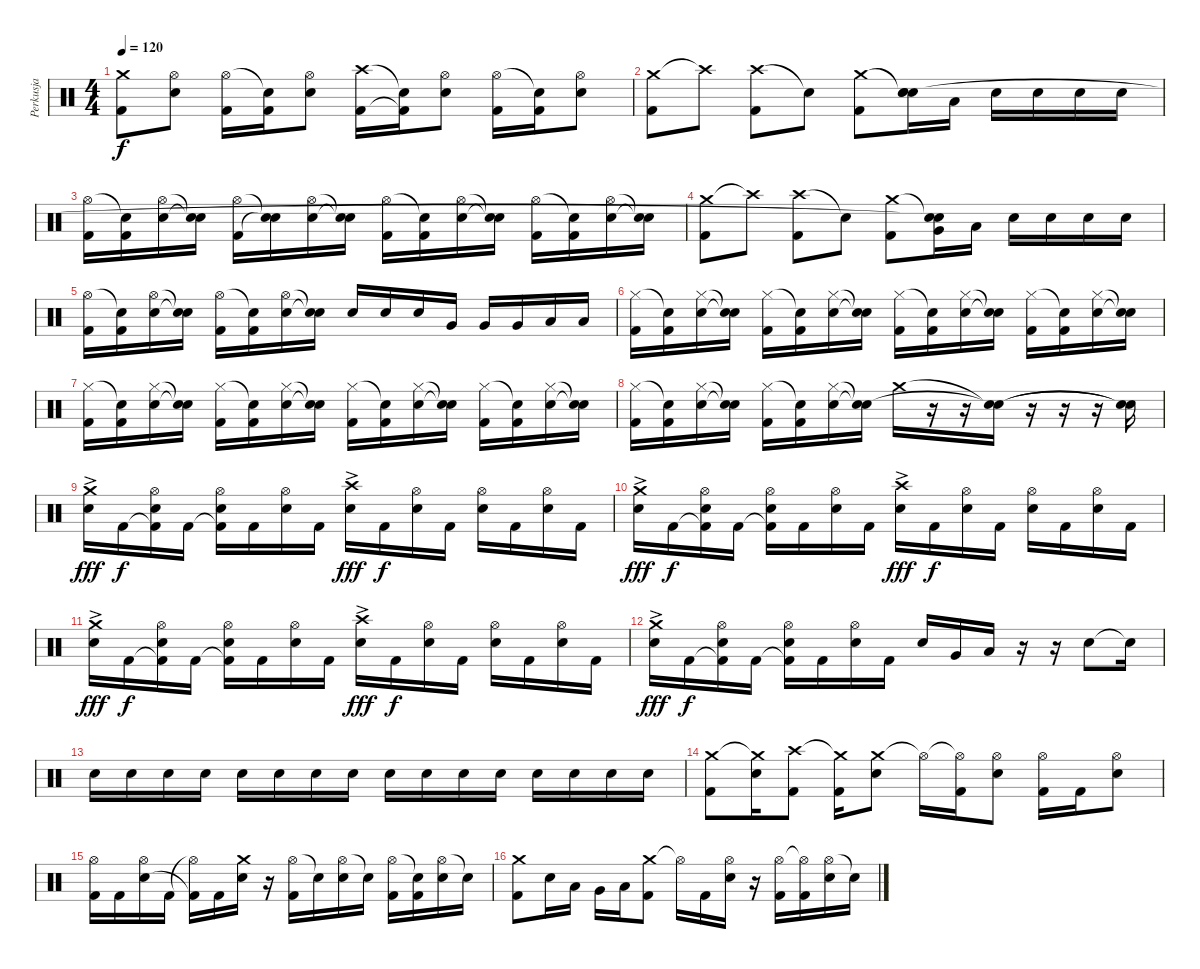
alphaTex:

\track ("Perkusja" "Perkusja") {instrument percussion}
\staff {score}
\articulation defaults
\ts (4 4)
\tempo 120
\clef neutral
\ks c
("Crash medium (hit)" "Kick (hit) 2").8{dy f} ("Hi-Hat (open)" "Electric Snare (hit)").8 ("Hi-Hat (open)" "Kick (hit) 2").16 ("Snare (hit)"{t} "Kick (hit) 2").16 ("Hi-Hat (open)" "Electric Snare (hit)").8 ("Crash high (hit)" "Kick (hit) 2").16 ("Snare (hit)"{t} "Kick (hit) 2"{t}).16 ("Hi-Hat (open)" "Electric Snare (hit)").8 ("Hi-Hat (open)" "Kick (hit) 2").16 ("Snare (hit)"{t} "Kick (hit) 2").16 ("Hi-Hat (open)" "Electric Snare (hit)").8 |
("Crash medium (hit)" "Kick (hit) 2").8 "Crash high (hit)"{t}.8 ("Crash high (hit)" "Kick (hit) 2").8 "Snare (hit)"{t}.8 ("Crash medium (hit)" "Kick (hit) 2").8 ("Snare (hit)"{t} "Electric Snare (hit)" "Snare (hit)").16 "Low Tom (hit)".16 "Electric Snare (hit)".16 "Electric Snare (hit)".16 "Electric Snare (hit)".16 "Electric Snare (hit)".16 |
("Hi-Hat (open)" "Kick (hit) 2").16 ("Snare (hit)"{t} "Kick (hit) 2").16 ("Hi-Hat (open)" "Electric Snare (hit)").16 ("Snare (hit)"{t} "Snare (hit)"{t}).16 ("Hi-Hat (open)" "Kick (hit) 2").16 ("Snare (hit)"{t} "Snare (hit)"{t}).16 ("Hi-Hat (open)" "Electric Snare (hit)").16 ("Snare (hit)"{t} "Snare (hit)"{t}).16 ("Hi-Hat (open)" "Kick (hit) 2").16 ("Snare (hit)"{t} "Kick (hit) 2").16 ("Hi-Hat (open)" "Electric Snare (hit)").16 ("Snare (hit)"{t} "Snare (hit)"{t}).16 ("Hi-Hat (open)" "Kick (hit) 2").16 ("Snare (hit)"{t} "Kick (hit) 2").16 ("Hi-Hat (open)" "Electric Snare (hit)").16 ("Snare (hit)"{t} "Snare (hit)"{t}).16 |
("Crash medium (hit)" "Kick (hit) 2").8 "Crash high (hit)"{t}.8 ("Crash high (hit)" "Kick (hit) 2").8 "Snare (hit)"{t}.8 ("Crash medium (hit)" "Kick (hit) 2").8 ("Snare (hit)"{t} "Very Low Tom (hit)" "Snare (hit)"{t}).16 "Low Tom (hit)".16 "Electric Snare (hit)".16 "Electric Snare (hit)".16 "Electric Snare (hit)".16 "Electric Snare (hit)".16 |
("Hi-Hat (open)" "Kick (hit) 2").16 ("Snare (hit)"{t} "Kick (hit) 2").16 ("Hi-Hat (open)" "Electric Snare (hit)").16 ("Snare (hit)"{t} "Snare (hit)"{t}).16 ("Hi-Hat (open)" "Kick (hit) 2").16 ("Snare (hit)"{t} "Kick (hit) 2").16 ("Hi-Hat (open)" "Electric Snare (hit)").16 ("Snare (hit)"{t} "Snare (hit)"{t}).16 "Electric Snare (hit)".16 "Electric Snare (hit)".16 "Electric Snare (hit)".16 "Very Low Tom (hit)".16 "Very Low Tom (hit)".16 "Very Low Tom (hit)".16 "Low Floor Tom (hit)".16 "Low Floor Tom (hit)".16 |
("Hi-Hat (closed)" "Kick (hit) 2").16 ("Snare (hit)"{t} "Kick (hit) 2").16 ("Hi-Hat (closed)" "Electric Snare (hit)").16 ("Snare (hit)"{t} "Snare (hit)"{t}).16 ("Hi-Hat (closed)" "Kick (hit) 2").16 ("Snare (hit)"{t} "Kick (hit) 2").16 ("Hi-Hat (closed)" "Electric Snare (hit)").16 ("Snare (hit)"{t} "Snare (hit)"{t}).16 ("Hi-Hat (closed)" "Kick (hit) 2").16 ("Snare (hit)"{t} "Kick (hit) 2").16 ("Hi-Hat (closed)" "Electric Snare (hit)").16 ("Snare (hit)"{t} "Snare (hit)"{t}).16 ("Hi-Hat (closed)" "Kick (hit) 2").16 ("Snare (hit)"{t} "Kick (hit) 2").16 ("Hi-Hat (closed)" "Electric Snare (hit)").16 ("Snare (hit)"{t} "Snare (hit)"{t}).16 |
("Hi-Hat (closed)" "Kick (hit) 2").16 ("Snare (hit)"{t} "Kick (hit) 2").16 ("Hi-Hat (closed)" "Electric Snare (hit)").16 ("Snare (hit)"{t} "Snare (hit)"{t}).16 ("Hi-Hat (closed)" "Kick (hit) 2").16 ("Snare (hit)"{t} "Kick (hit) 2").16 ("Hi-Hat (closed)" "Electric Snare (hit)").16 ("Snare (hit)"{t} "Snare (hit)"{t}).16 ("Hi-Hat (closed)" "Kick (hit) 2").16 ("Snare (hit)"{t} "Kick (hit) 2").16 ("Hi-Hat (closed)" "Electric Snare (hit)").16 ("Snare (hit)"{t} "Snare (hit)"{t}).16 ("Hi-Hat (closed)" "Kick (hit) 2").16 ("Snare (hit)"{t} "Kick (hit) 2").16 ("Hi-Hat (closed)" "Electric Snare (hit)").16 ("Snare (hit)"{t} "Snare (hit)"{t}).16 |
("Hi-Hat (closed)" "Kick (hit) 2").16 ("Snare (hit)"{t} "Kick (hit) 2").16 ("Hi-Hat (closed)" "Electric Snare (hit)").16 ("Snare (hit)"{t} "Snare (hit)"{t}).16 ("Hi-Hat (closed)" "Kick (hit) 2").16 ("Snare (hit)"{t} "Kick (hit) 2").16 ("Hi-Hat (closed)" "Electric Snare (hit)").16 ("Snare (hit)"{t} "Snare (hit)"{t}).16 "Crash medium (hit)".16 r.16 r.16 ("Snare (hit)"{t} "Snare (hit)"{t}).16 r.16 r.16 r.16 ("Snare (hit)"{t} "Snare (hit)"{t}).16 |
("Electric Snare (hit)"{ac} "Crash medium (hit)").16{dy fff} "Kick (hit) 2".16{dy f} ("Kick (hit) 2"{t} "Hi-Hat (open)" "Electric Snare (hit)").16 "Kick (hit) 2".16 ("Kick (hit) 2"{t} "Hi-Hat (open)" "Electric Snare (hit)").16 "Kick (hit) 2".16 ("Hi-Hat (open)" "Electric Snare (hit)").16 "Kick (hit) 2".16 ("Electric Snare (hit)"{ac} "Crash high (hit)").16{dy fff} "Kick (hit) 2".16{dy f} ("Hi-Hat (open)" "Electric Snare (hit)").16 "Kick (hit) 2".16 ("Hi-Hat (open)" "Electric Snare (hit)").16 "Kick (hit) 2".16 ("Hi-Hat (open)" "Electric Snare (hit)").16 "Kick (hit) 2".16 |
("Electric Snare (hit)"{ac} "Crash medium (hit)").16{dy fff} "Kick (hit) 2".16{dy f} ("Kick (hit) 2"{t} "Hi-Hat (open)" "Electric Snare (hit)").16 "Kick (hit) 2".16 ("Kick (hit) 2"{t} "Hi-Hat (open)" "Electric Snare (hit)").16 "Kick (hit) 2".16 ("Hi-Hat (open)" "Electric Snare (hit)").16 "Kick (hit) 2".16 ("Electric Snare (hit)"{ac} "Crash high (hit)").16{dy fff} "Kick (hit) 2".16{dy f} ("Hi-Hat (open)" "Electric Snare (hit)").16 "Kick (hit) 2".16 ("Hi-Hat (open)" "Electric Snare (hit)").16 "Kick (hit) 2".16 ("Hi-Hat (open)" "Electric Snare (hit)").16 "Kick (hit) 2".16 |
("Electric Snare (hit)"{ac} "Crash medium (hit)").16{dy fff} "Kick (hit) 2".16{dy f} ("Kick (hit) 2"{t} "Hi-Hat (open)" "Electric Snare (hit)").16 "Kick (hit) 2".16 ("Kick (hit) 2"{t} "Hi-Hat (open)" "Electric Snare (hit)").16 "Kick (hit) 2".16 ("Hi-Hat (open)" "Electric Snare (hit)").16 "Kick (hit) 2".16 ("Electric Snare (hit)"{ac} "Crash high (hit)").16{dy fff} "Kick (hit) 2".16{dy f} ("Hi-Hat (open)" "Electric Snare (hit)").16 "Kick (hit) 2".16 ("Hi-Hat (open)" "Electric Snare (hit)").16 "Kick (hit) 2".16 ("Hi-Hat (open)" "Electric Snare (hit)").16 "Kick (hit) 2".16 |
("Electric Snare (hit)"{ac} "Crash medium (hit)").16{dy fff} "Kick (hit) 2".16{dy f} ("Kick (hit) 2"{t} "Hi-Hat (open)" "Electric Snare (hit)").16 "Kick (hit) 2".16 ("Kick (hit) 2"{t} "Hi-Hat (open)" "Electric Snare (hit)").16 "Kick (hit) 2".16 ("Hi-Hat (open)" "Electric Snare (hit)").16 "Kick (hit) 2".16 "Electric Snare (hit)".16 "Very Low Tom (hit)".16 "Low Tom (hit)".16 r.16 r.16 "Electric Snare (hit)".8 "Snare (hit)"{t}.16 |
"Electric Snare (hit)".16 "Electric Snare (hit)".16 "Electric Snare (hit)".16 "Electric Snare (hit)".16 "Electric Snare (hit)".16 "Electric Snare (hit)".16 "Electric Snare (hit)".16 "Electric Snare (hit)".16 "Electric Snare (hit)".16 "Electric Snare (hit)".16 "Electric Snare (hit)".16 "Electric Snare (hit)".16 "Electric Snare (hit)".16 "Electric Snare (hit)".16 "Electric Snare (hit)".16 "Electric Snare (hit)".16 |
("Crash medium (hit)" "Kick (hit) 2").8 ("Crash medium (hit)"{t} "Electric Snare (hit)").16 ("Crash high (hit)" "Kick (hit) 2").8 ("Crash medium (hit)"{t} "Kick (hit) 2").16 ("Crash medium (hit)" "Electric Snare (hit)").8 "Hi-Hat (open)"{t}.16 ("Hi-Hat (open)"{t} "Kick (hit) 2").16 ("Hi-Hat (open)" "Electric Snare (hit)").8 ("Hi-Hat (open)" "Kick (hit) 2").16 "Kick (hit) 2".16 ("Hi-Hat (open)" "Electric Snare (hit)").8 |
("Hi-Hat (open)" "Kick (hit) 2").16 "Kick (hit) 2".16 ("Hi-Hat (open)" "Electric Snare (hit)").16 "Kick (hit) 2".16 ("Hi-Hat (open)"{t} "Kick (hit) 2"{t}).16 "Kick (hit) 2".16 ("Crash medium (hit)" "Electric Snare (hit)").16 r.16 ("Hi-Hat (open)" "Kick (hit) 2").16 "Snare (hit)"{t}.16 ("Hi-Hat (open)" "Electric Snare (hit)").16 "Snare (hit)"{t}.16 ("Hi-Hat (open)" "Kick (hit) 2").16 ("Snare (hit)"{t} "Kick (hit) 2").16 ("Hi-Hat (open)" "Electric Snare (hit)").16 "Snare (hit)"{t}.16 |
("Crash medium (hit)" "Kick (hit) 2").8 "Electric Snare (hit)".16 "Low Tom (hit)".16 "Very Low Tom (hit)".16 "Low Floor Tom (hit)".16 ("Crash medium (hit)" "Kick (hit) 2").8 "Hi-Hat (open)"{t}.16 "Kick (hit) 2".16 ("Hi-Hat (open)" "Electric Snare (hit)").16 r.16 ("Hi-Hat (open)" "Kick (hit) 2").16 ("Hi-Hat (open)"{t} "Kick (hit) 2").16 ("Hi-Hat (open)" "Electric Snare (hit)").16 "Snare (hit)"{t}.16
